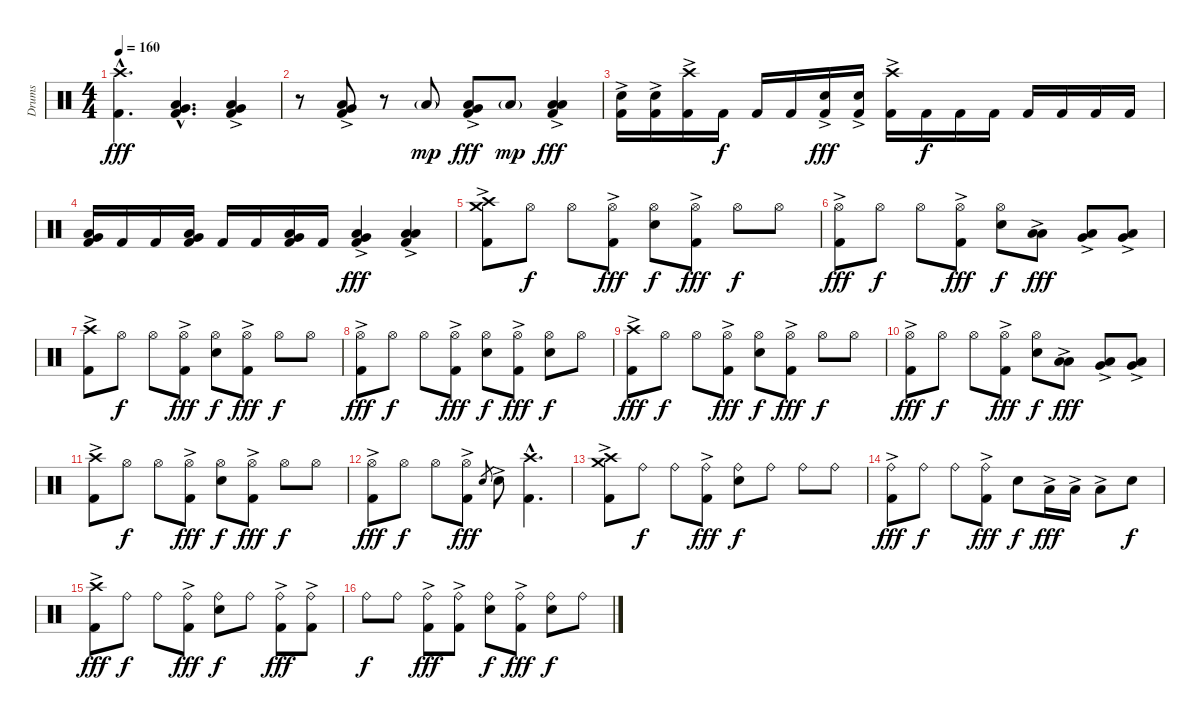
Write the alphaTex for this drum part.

\track ("Drums" "Drums") {instrument percussion}
\staff {score}
\articulation defaults
\ts (4 4)
\tempo 160
\clef neutral
\ks c
("Crash high (hit)"{hac} "Kick (hit) 2"{hac}).4{d dy fff} ("Kick (hit) 2"{hac} "Low Floor Tom (hit)"{hac} "Very Low Tom (hit)"{hac}).4{d} ("Kick (hit) 2"{ac} "Low Floor Tom (hit)" "Very Low Tom (hit)").4 |
r.8 ("Very Low Tom (hit)" "Low Floor Tom (hit)" "Kick (hit) 2"{ac}).8 r.8 "Low Floor Tom (hit)"{g}.8{dy mp} ("Very Low Tom (hit)" "Low Floor Tom (hit)" "Kick (hit) 2"{ac}).8{dy fff} "Low Floor Tom (hit)"{g}.8{dy mp} ("Low Tom (hit)" "Low Floor Tom (hit)" "Kick (hit) 2"{ac}).4{dy fff} |
("Snare (hit) 2"{ac} "Kick (hit) 2").16 ("Snare (hit) 2"{ac} "Kick (hit) 2").16 ("Crash high (hit)" "Kick (hit) 2"{ac}).16 "Kick (hit) 2".16{dy f} "Kick (hit) 2".16 "Kick (hit) 2".16 ("Snare (hit) 2"{ac} "Kick (hit) 2").16{dy fff} ("Snare (hit) 2"{ac} "Kick (hit) 2").16 ("Crash high (hit)" "Kick (hit) 2"{ac}).16 "Kick (hit) 2".16{dy f} "Kick (hit) 2".16 "Kick (hit) 2".16 "Kick (hit) 2".16 "Kick (hit) 2".16 "Kick (hit) 2".16 "Kick (hit) 2".16 |
("Low Tom (hit)" "Very Low Tom (hit)" "Kick (hit) 2").16 "Kick (hit) 2".16 "Kick (hit) 2".16 ("Low Tom (hit)" "Very Low Tom (hit)" "Kick (hit) 2").16 "Kick (hit) 2".16 "Kick (hit) 2".16 ("Very Low Tom (hit)" "Low Floor Tom (hit)" "Kick (hit) 2").16 "Kick (hit) 2".16 ("Very Low Tom (hit)" "Low Floor Tom (hit)" "Kick (hit) 2"{ac}).4{dy fff} ("Low Floor Tom (hit)" "Low Floor Tom (hit)" "Kick (hit) 2"{ac}).4 |
("Crash high (hit)" "Crash medium (hit)" "Kick (hit) 2"{ac}).8 "Hi-Hat (open)".8{dy f} "Hi-Hat (open)".8 ("Hi-Hat (open)" "Kick (hit) 2"{ac}).8{dy fff} ("Hi-Hat (open)" "Snare (hit) 2").8{dy f} ("Hi-Hat (open)" "Kick (hit) 2"{ac}).8{dy fff} "Hi-Hat (open)".8{dy f} "Hi-Hat (open)".8 |
("Hi-Hat (open)" "Kick (hit) 2"{ac}).8{dy fff} "Hi-Hat (open)".8{dy f} "Hi-Hat (open)".8 ("Hi-Hat (open)" "Kick (hit) 2"{ac}).8{dy fff} ("Hi-Hat (open)" "Snare (hit) 2").8{dy f} ("Low Tom (hit)"{ac} "Low Tom (hit)"{ac}).8{dy fff} ("Low Tom (hit)"{ac} "Very Low Tom (hit)"{ac}).8 ("Very Low Tom (hit)"{ac} "Low Floor Tom (hit)"{ac}).8 |
("Crash high (hit)" "Kick (hit) 2"{ac}).8 "Hi-Hat (open)".8{dy f} "Hi-Hat (open)".8 ("Hi-Hat (open)" "Kick (hit) 2"{ac}).8{dy fff} ("Hi-Hat (open)" "Snare (hit) 2").8{dy f} ("Hi-Hat (open)" "Kick (hit) 2"{ac}).8{dy fff} "Hi-Hat (open)".8{dy f} "Hi-Hat (open)".8 |
("Hi-Hat (open)" "Kick (hit) 2"{ac}).8{dy fff} "Hi-Hat (open)".8{dy f} "Hi-Hat (open)".8 ("Hi-Hat (open)" "Kick (hit) 2"{ac}).8{dy fff} ("Hi-Hat (open)" "Snare (hit) 2").8{dy f} ("Hi-Hat (open)" "Kick (hit) 2"{ac}).8{dy fff} ("Hi-Hat (open)" "Snare (hit) 2").8{dy f} "Hi-Hat (open)".8 |
("Crash high (hit)" "Kick (hit) 2"{ac}).8{dy fff} "Hi-Hat (open)".8{dy f} "Hi-Hat (open)".8 ("Hi-Hat (open)" "Kick (hit) 2"{ac}).8{dy fff} ("Hi-Hat (open)" "Snare (hit) 2").8{dy f} ("Hi-Hat (open)" "Kick (hit) 2"{ac}).8{dy fff} "Hi-Hat (open)".8{dy f} "Hi-Hat (open)".8 |
("Hi-Hat (open)" "Kick (hit) 2"{ac}).8{dy fff} "Hi-Hat (open)".8{dy f} "Hi-Hat (open)".8 ("Hi-Hat (open)" "Kick (hit) 2"{ac}).8{dy fff} ("Hi-Hat (open)" "Snare (hit) 2").8{dy f} ("Low Tom (hit)"{ac} "Low Tom (hit)"{ac}).8{dy fff} ("Low Tom (hit)"{ac} "Very Low Tom (hit)"{ac}).8 ("Very Low Tom (hit)"{ac} "Low Floor Tom (hit)"{ac}).8 |
("Crash high (hit)" "Kick (hit) 2"{ac}).8 "Hi-Hat (open)".8{dy f} "Hi-Hat (open)".8 ("Hi-Hat (open)" "Kick (hit) 2"{ac}).8{dy fff} ("Hi-Hat (open)" "Snare (hit) 2").8{dy f} ("Hi-Hat (open)" "Kick (hit) 2"{ac}).8{dy fff} "Hi-Hat (open)".8{dy f} "Hi-Hat (open)".8 |
("Hi-Hat (open)" "Kick (hit) 2"{ac}).8{dy fff} "Hi-Hat (open)".8{dy f} "Hi-Hat (open)".8 ("Hi-Hat (open)" "Kick (hit) 2"{ac}).8{dy fff} "Snare (hit) 2".8{gr} "Snare (hit) 2"{ac}.8 ("Crash high (hit)"{hac} "Kick (hit) 2"{hac}).4{d} |
("Crash high (hit)" "Crash medium (hit)" "Kick (hit) 2"{ac}).8 "Ride (bell)".8{dy f} "Ride (bell)".8 ("Ride (bell)" "Kick (hit) 2"{ac}).8{dy fff} ("Ride (bell)" "Snare (hit) 2").8{dy f} "Ride (bell)".8 "Ride (bell)".8 "Ride (bell)".8 |
("Ride (bell)" "Kick (hit) 2"{ac}).8{dy fff} "Ride (bell)".8{dy f} "Ride (bell)".8 ("Ride (bell)" "Kick (hit) 2"{ac}).8{dy fff} "Snare (hit) 2".8{dy f} "Low Tom (hit)"{ac}.16{dy fff} "Low Tom (hit)"{ac}.16 "Low Tom (hit)"{ac}.8 "Snare (hit) 2".8{dy f} |
("Crash high (hit)" "Kick (hit) 2"{ac}).8{dy fff} "Ride (bell)".8{dy f} "Ride (bell)".8 ("Ride (bell)" "Kick (hit) 2"{ac}).8{dy fff} ("Ride (bell)" "Snare (hit) 2").8{dy f} "Ride (bell)".8 ("Ride (bell)" "Kick (hit) 2"{ac}).8{dy fff} ("Ride (bell)" "Kick (hit) 2"{ac}).8 |
"Ride (bell)".8{dy f} "Ride (bell)".8 ("Ride (bell)" "Kick (hit) 2"{ac}).8{dy fff} ("Ride (bell)" "Kick (hit) 2"{ac}).8 ("Ride (bell)" "Snare (hit) 2").8{dy f} ("Ride (bell)" "Kick (hit) 2"{ac}).8{dy fff} ("Ride (bell)" "Snare (hit) 2").8{dy f} "Ride (bell)".8
